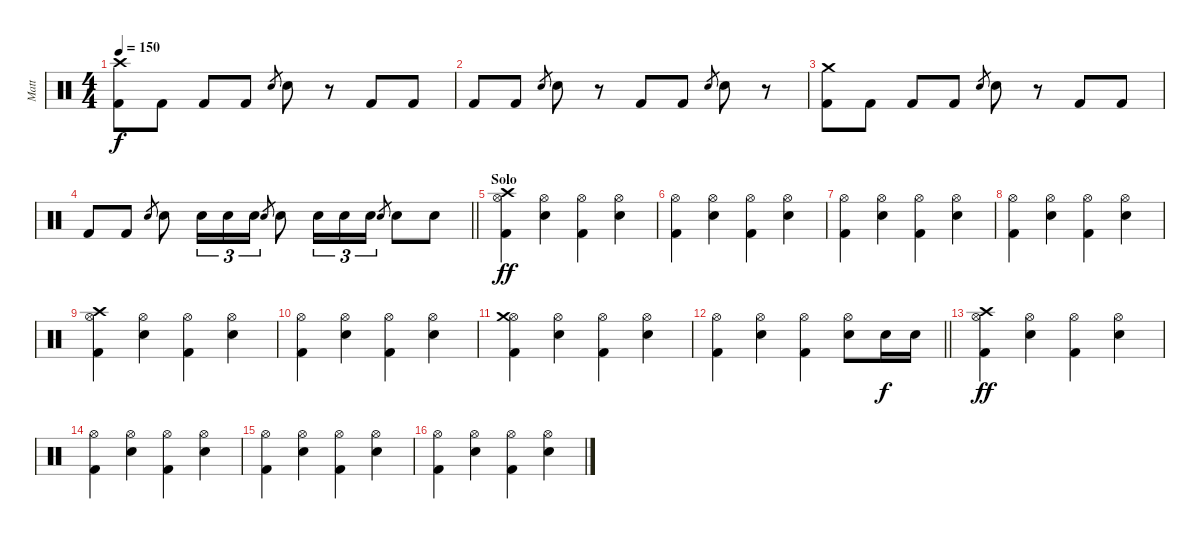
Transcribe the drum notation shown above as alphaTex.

\track ("Matt" "Matt") {instrument percussion}
\staff {score}
\articulation defaults
\ts (4 4)
\tempo 150
\clef neutral
\ks c
("Crash high (hit)" "Kick (hit) 2").8{dy f} "Kick (hit) 2".8 "Kick (hit) 2".8 "Kick (hit) 2".8 "Snare (hit) 2".8{gr} "Snare (hit) 2".8 r.8 "Kick (hit) 2".8 "Kick (hit) 2".8 |
"Kick (hit) 2".8 "Kick (hit) 2".8 "Snare (hit) 2".8{gr} "Snare (hit) 2".8 r.8 "Kick (hit) 2".8 "Kick (hit) 2".8 "Snare (hit) 2".8{gr} "Snare (hit) 2".8 r.8 |
("Crash medium (hit)" "Kick (hit) 2").8 "Kick (hit) 2".8 "Kick (hit) 2".8 "Kick (hit) 2".8 "Snare (hit) 2".8{gr} "Snare (hit) 2".8 r.8 "Kick (hit) 2".8 "Kick (hit) 2".8 |
\barLineRight lightlight "Kick (hit) 2".8 "Kick (hit) 2".8 "Snare (hit) 2".8{gr} "Snare (hit) 2".8 "Snare (hit) 2".16{tu (3 2)} "Snare (hit) 2".16{tu (3 2)} "Snare (hit) 2".16{tu (3 2)} "Snare (hit) 2".8{gr} "Snare (hit) 2".8 "Snare (hit) 2".16{tu (3 2)} "Snare (hit) 2".16{tu (3 2)} "Snare (hit) 2".16{tu (3 2)} "Snare (hit) 2".8{gr} "Snare (hit) 2".8 "Snare (hit) 2".8
|
\section ("" "Solo")
("Hi-Hat (open)" "Kick (hit) 2" "Crash high (hit)").4{dy ff} ("Hi-Hat (open)" "Snare (hit) 2").4 ("Hi-Hat (open)" "Kick (hit) 2").4 ("Hi-Hat (open)" "Snare (hit) 2").4 |
("Hi-Hat (open)" "Kick (hit) 2").4 ("Hi-Hat (open)" "Snare (hit) 2").4 ("Hi-Hat (open)" "Kick (hit) 2").4 ("Hi-Hat (open)" "Snare (hit) 2").4 |
("Hi-Hat (open)" "Kick (hit) 2").4 ("Hi-Hat (open)" "Snare (hit) 2").4 ("Hi-Hat (open)" "Kick (hit) 2").4 ("Hi-Hat (open)" "Snare (hit) 2").4 |
("Hi-Hat (open)" "Kick (hit) 2").4 ("Hi-Hat (open)" "Snare (hit) 2").4 ("Hi-Hat (open)" "Kick (hit) 2").4 ("Hi-Hat (open)" "Snare (hit) 2").4 |
("Hi-Hat (open)" "Kick (hit) 2" "Crash high (hit)").4 ("Hi-Hat (open)" "Snare (hit) 2").4 ("Hi-Hat (open)" "Kick (hit) 2").4 ("Hi-Hat (open)" "Snare (hit) 2").4 |
("Hi-Hat (open)" "Kick (hit) 2").4 ("Hi-Hat (open)" "Snare (hit) 2").4 ("Hi-Hat (open)" "Kick (hit) 2").4 ("Hi-Hat (open)" "Snare (hit) 2").4 |
("Hi-Hat (open)" "Kick (hit) 2" "Crash medium (hit)").4 ("Hi-Hat (open)" "Snare (hit) 2").4 ("Hi-Hat (open)" "Kick (hit) 2").4 ("Hi-Hat (open)" "Snare (hit) 2").4 |
\barLineRight lightlight
("Hi-Hat (open)" "Kick (hit) 2").4 ("Hi-Hat (open)" "Snare (hit) 2").4 ("Hi-Hat (open)" "Kick (hit) 2").4 ("Hi-Hat (open)" "Snare (hit) 2").8 "Snare (hit) 2".16{dy f} "Snare (hit) 2".16 |
("Hi-Hat (open)" "Kick (hit) 2" "Crash high (hit)").4{dy ff} ("Hi-Hat (open)" "Snare (hit) 2").4 ("Hi-Hat (open)" "Kick (hit) 2").4 ("Hi-Hat (open)" "Snare (hit) 2").4 |
("Hi-Hat (open)" "Kick (hit) 2").4 ("Hi-Hat (open)" "Snare (hit) 2").4 ("Hi-Hat (open)" "Kick (hit) 2").4 ("Hi-Hat (open)" "Snare (hit) 2").4 |
("Hi-Hat (open)" "Kick (hit) 2").4 ("Hi-Hat (open)" "Snare (hit) 2").4 ("Hi-Hat (open)" "Kick (hit) 2").4 ("Hi-Hat (open)" "Snare (hit) 2").4 |
("Hi-Hat (open)" "Kick (hit) 2").4 ("Hi-Hat (open)" "Snare (hit) 2").4 ("Hi-Hat (open)" "Kick (hit) 2").4 ("Hi-Hat (open)" "Snare (hit) 2").4
